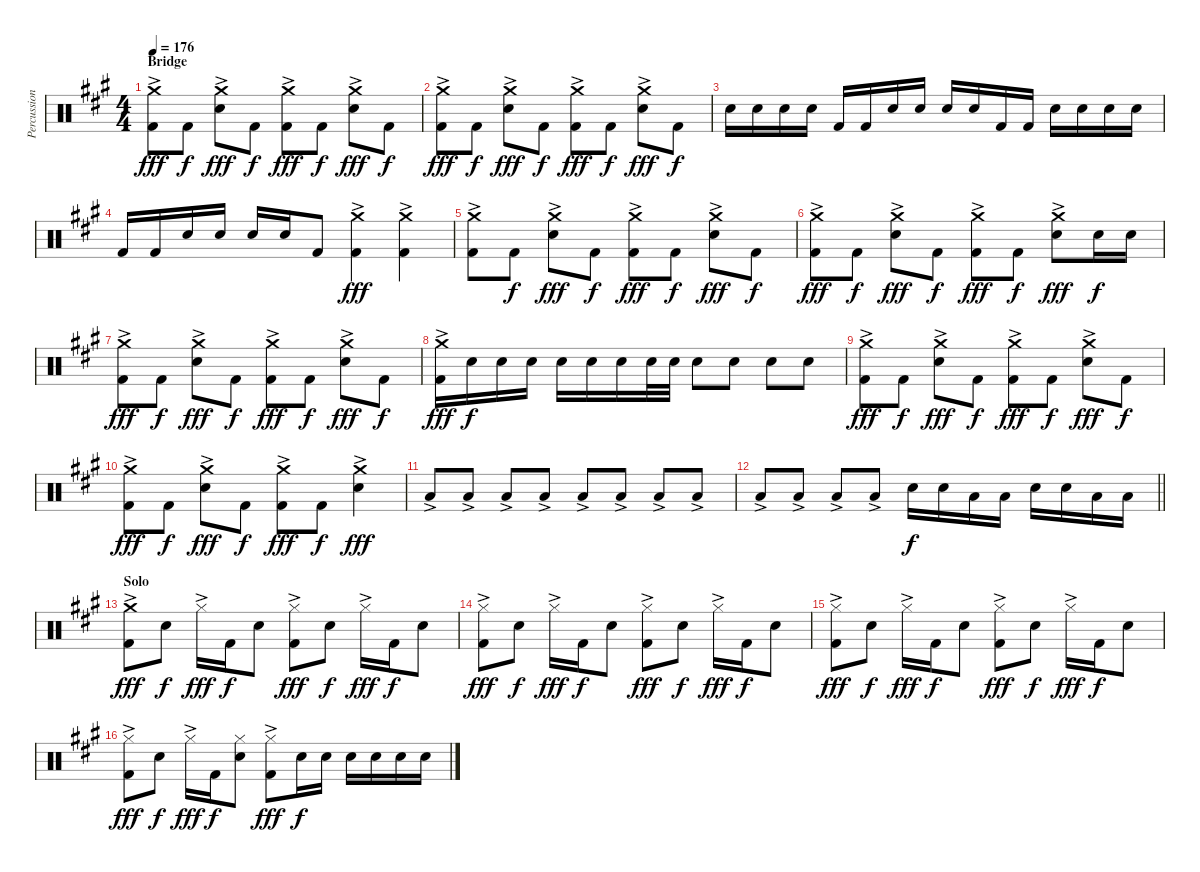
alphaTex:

\track ("Percussion" "Percussion") {instrument percussion}
\staff {score}
\articulation defaults
\ts (4 4)
\section ("" "Bridge")
\tempo 176
\clef neutral
\ks a
("Crash medium (hit)"{ac} "Kick (hit) 2").8{dy fff} "Kick (hit) 2".8{dy f} ("Crash medium (hit)"{ac} "Snare (hit) 2").8{dy fff} "Kick (hit) 2".8{dy f} ("Crash medium (hit)"{ac} "Kick (hit) 2").8{dy fff} "Kick (hit) 2".8{dy f} ("Crash medium (hit)"{ac} "Snare (hit) 2").8{dy fff} "Kick (hit) 2".8{dy f} |
("Crash medium (hit)"{ac} "Kick (hit) 2").8{dy fff} "Kick (hit) 2".8{dy f} ("Crash medium (hit)"{ac} "Snare (hit) 2").8{dy fff} "Kick (hit) 2".8{dy f} ("Crash medium (hit)"{ac} "Kick (hit) 2").8{dy fff} "Kick (hit) 2".8{dy f} ("Crash medium (hit)"{ac} "Snare (hit) 2").8{dy fff} "Kick (hit) 2".8{dy f} |
"Snare (hit) 2".16 "Snare (hit) 2".16 "Snare (hit) 2".16 "Snare (hit) 2".16 "Kick (hit) 2".16 "Kick (hit) 2".16 "Snare (hit) 2".16 "Snare (hit) 2".16 "Snare (hit) 2".16 "Snare (hit) 2".16 "Kick (hit) 2".16 "Kick (hit) 2".16 "Snare (hit) 2".16 "Snare (hit) 2".16 "Snare (hit) 2".16 "Snare (hit) 2".16 |
"Kick (hit) 2".16 "Kick (hit) 2".16 "Snare (hit) 2".16 "Snare (hit) 2".16 "Snare (hit) 2".16 "Snare (hit) 2".16 "Kick (hit) 2".8 ("Crash medium (hit)"{ac} "Kick (hit) 2"{ac}).4{dy fff} ("Crash medium (hit)"{ac} "Kick (hit) 2"{ac}).4 |
("Crash medium (hit)"{ac} "Kick (hit) 2").8 "Kick (hit) 2".8{dy f} ("Crash medium (hit)"{ac} "Snare (hit) 2").8{dy fff} "Kick (hit) 2".8{dy f} ("Crash medium (hit)"{ac} "Kick (hit) 2").8{dy fff} "Kick (hit) 2".8{dy f} ("Crash medium (hit)"{ac} "Snare (hit) 2").8{dy fff} "Kick (hit) 2".8{dy f} |
("Crash medium (hit)"{ac} "Kick (hit) 2").8{dy fff} "Kick (hit) 2".8{dy f} ("Crash medium (hit)"{ac} "Snare (hit) 2").8{dy fff} "Kick (hit) 2".8{dy f} ("Crash medium (hit)"{ac} "Kick (hit) 2").8{dy fff} "Kick (hit) 2".8{dy f} ("Crash medium (hit)"{ac} "Snare (hit) 2").8{dy fff} "Snare (hit) 2".16{dy f} "Snare (hit) 2".16 |
("Crash medium (hit)"{ac} "Kick (hit) 2").8{dy fff} "Kick (hit) 2".8{dy f} ("Crash medium (hit)"{ac} "Snare (hit) 2").8{dy fff} "Kick (hit) 2".8{dy f} ("Crash medium (hit)"{ac} "Kick (hit) 2").8{dy fff} "Kick (hit) 2".8{dy f} ("Crash medium (hit)"{ac} "Snare (hit) 2").8{dy fff} "Kick (hit) 2".8{dy f} |
("Crash medium (hit)"{ac} "Kick (hit) 2"{ac}).16{dy fff} "Snare (hit) 2".16{dy f} "Snare (hit) 2".16 "Snare (hit) 2".16 "Snare (hit) 2".16 "Snare (hit) 2".16 "Snare (hit) 2".16 "Snare (hit) 2".32 "Snare (hit) 2".32 "Snare (hit) 2".8 "Snare (hit) 2".8 "Snare (hit) 2".8 "Snare (hit) 2".8 |
("Crash medium (hit)"{ac} "Kick (hit) 2").8{dy fff} "Kick (hit) 2".8{dy f} ("Crash medium (hit)"{ac} "Snare (hit) 2").8{dy fff} "Kick (hit) 2".8{dy f} ("Crash medium (hit)"{ac} "Kick (hit) 2").8{dy fff} "Kick (hit) 2".8{dy f} ("Crash medium (hit)"{ac} "Snare (hit) 2").8{dy fff} "Kick (hit) 2".8{dy f} |
("Crash medium (hit)"{ac} "Kick (hit) 2").8{dy fff} "Kick (hit) 2".8{dy f} ("Crash medium (hit)"{ac} "Snare (hit) 2").8{dy fff} "Kick (hit) 2".8{dy f} ("Crash medium (hit)"{ac} "Kick (hit) 2").8{dy fff} "Kick (hit) 2".8{dy f} ("Crash medium (hit)"{ac} "Snare (hit) 2").4{dy fff} |
"Low Floor Tom (hit)"{ac}.8 "Low Floor Tom (hit)"{ac}.8 "Low Floor Tom (hit)"{ac}.8 "Low Floor Tom (hit)"{ac}.8 "Low Floor Tom (hit)"{ac}.8 "Low Floor Tom (hit)"{ac}.8 "Low Floor Tom (hit)"{ac}.8 "Low Floor Tom (hit)"{ac}.8 |
\barLineRight lightlight "Low Floor Tom (hit)"{ac}.8 "Low Floor Tom (hit)"{ac}.8 "Low Floor Tom (hit)"{ac}.8 "Low Floor Tom (hit)"{ac}.8 "Snare (hit) 2".16{dy f} "Snare (hit) 2".16 "Low Floor Tom (hit)".16 "Low Floor Tom (hit)".16 "Snare (hit) 2".16 "Snare (hit) 2".16 "Low Floor Tom (hit)".16 "Low Floor Tom (hit)".16
|
\section ("" "Solo")
("Crash medium (hit)"{ac} "Kick (hit) 2").8{dy fff} "Snare (hit) 2".8{dy f} "Hi-Hat (closed)"{ac}.16{dy fff} "Kick (hit) 2".16{dy f} "Snare (hit) 2".8 ("Hi-Hat (closed)"{ac} "Kick (hit) 2").8{dy fff} "Snare (hit) 2".8{dy f} "Hi-Hat (closed)"{ac}.16{dy fff} "Kick (hit) 2".16{dy f} "Snare (hit) 2".8 |
("Hi-Hat (closed)"{ac} "Kick (hit) 2").8{dy fff} "Snare (hit) 2".8{dy f} "Hi-Hat (closed)"{ac}.16{dy fff} "Kick (hit) 2".16{dy f} "Snare (hit) 2".8 ("Hi-Hat (closed)"{ac} "Kick (hit) 2").8{dy fff} "Snare (hit) 2".8{dy f} "Hi-Hat (closed)"{ac}.16{dy fff} "Kick (hit) 2".16{dy f} "Snare (hit) 2".8 |
("Hi-Hat (closed)"{ac} "Kick (hit) 2").8{dy fff} "Snare (hit) 2".8{dy f} "Hi-Hat (closed)"{ac}.16{dy fff} "Kick (hit) 2".16{dy f} "Snare (hit) 2".8 ("Hi-Hat (closed)"{ac} "Kick (hit) 2").8{dy fff} "Snare (hit) 2".8{dy f} "Hi-Hat (closed)"{ac}.16{dy fff} "Kick (hit) 2".16{dy f} "Snare (hit) 2".8 |
("Hi-Hat (closed)"{ac} "Kick (hit) 2").8{dy fff} "Snare (hit) 2".8{dy f} "Hi-Hat (closed)"{ac}.16{dy fff} "Kick (hit) 2".16{dy f} ("Hi-Hat (closed)" "Snare (hit) 2").8 ("Hi-Hat (closed)"{ac} "Kick (hit) 2").8{dy fff} "Snare (hit) 2".16{dy f} "Snare (hit) 2".16 "Snare (hit) 2".16 "Snare (hit) 2".16 "Snare (hit) 2".16 "Snare (hit) 2".16
